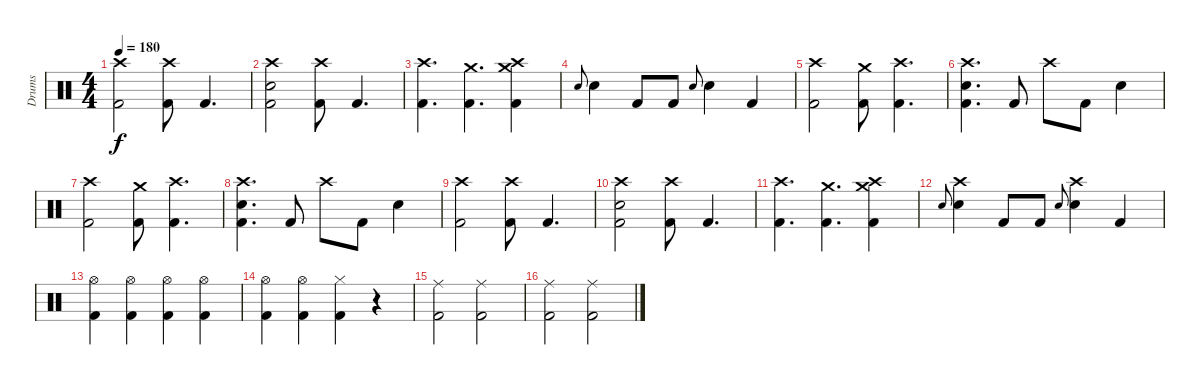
\track ("Drums" "Drums") {instrument percussion}
\staff {score}
\articulation defaults
\ts (4 4)
\tempo 180
\clef neutral
\ks c
("Crash high (hit)" "Kick (hit) 2").2{dy f} ("Crash high (hit)" "Kick (hit) 2").8 "Kick (hit) 2".4{d} |
("Crash high (hit)" "Electric Snare (hit)" "Kick (hit) 2").2 ("Crash high (hit)" "Kick (hit) 2").8 "Kick (hit) 2".4{d} |
("Crash high (hit)" "Kick (hit) 2").4{d} ("Crash medium (hit)" "Kick (hit) 2").4{d} ("Crash high (hit)" "Crash medium (hit)" "Kick (hit) 2").4 |
"Electric Snare (hit)".8{gr onbeat} "Electric Snare (hit)".4 "Kick (hit) 2".8 "Kick (hit) 2".8 "Electric Snare (hit)".8{gr onbeat} "Electric Snare (hit)".4 "Kick (hit) 2".4 |
("Crash high (hit)" "Kick (hit) 2").2 ("Crash medium (hit)" "Kick (hit) 2").8 ("Crash high (hit)" "Kick (hit) 2").4{d} |
("Crash high (hit)" "Electric Snare (hit)" "Kick (hit) 2").4{d} "Kick (hit) 2".8 "Crash high (hit)".8 "Kick (hit) 2".8 "Electric Snare (hit)".4 |
("Crash high (hit)" "Kick (hit) 2").2 ("Crash medium (hit)" "Kick (hit) 2").8 ("Crash high (hit)" "Kick (hit) 2").4{d} |
("Crash high (hit)" "Electric Snare (hit)" "Kick (hit) 2").4{d} "Kick (hit) 2".8 "Crash high (hit)".8 "Kick (hit) 2".8 "Electric Snare (hit)".4 |
("Crash high (hit)" "Kick (hit) 2").2 ("Crash high (hit)" "Kick (hit) 2").8 "Kick (hit) 2".4{d} |
("Crash high (hit)" "Electric Snare (hit)" "Kick (hit) 2").2 ("Crash high (hit)" "Kick (hit) 2").8 "Kick (hit) 2".4{d} |
("Crash high (hit)" "Kick (hit) 2").4{d} ("Crash medium (hit)" "Kick (hit) 2").4{d} ("Crash high (hit)" "Crash medium (hit)" "Kick (hit) 2").4 |
"Electric Snare (hit)".8{gr onbeat} ("Crash high (hit)" "Electric Snare (hit)").4 "Kick (hit) 2".8 "Kick (hit) 2".8 "Electric Snare (hit)".8{gr onbeat} ("Crash high (hit)" "Electric Snare (hit)").4 "Kick (hit) 2".4 |
("Hi-Hat (open)" "Kick (hit) 2").4 ("Hi-Hat (open)" "Kick (hit) 2").4 ("Hi-Hat (open)" "Kick (hit) 2").4 ("Hi-Hat (open)" "Kick (hit) 2").4 |
("Hi-Hat (open)" "Kick (hit) 2").4 ("Hi-Hat (open)" "Kick (hit) 2").4 ("Hi-Hat (closed)" "Kick (hit) 2").4 r.4 |
("Ride (middle)" "Kick (hit) 2").2 ("Ride (middle)" "Kick (hit) 2").2 |
("Ride (middle)" "Kick (hit) 2").2 ("Ride (middle)" "Kick (hit) 2").2
